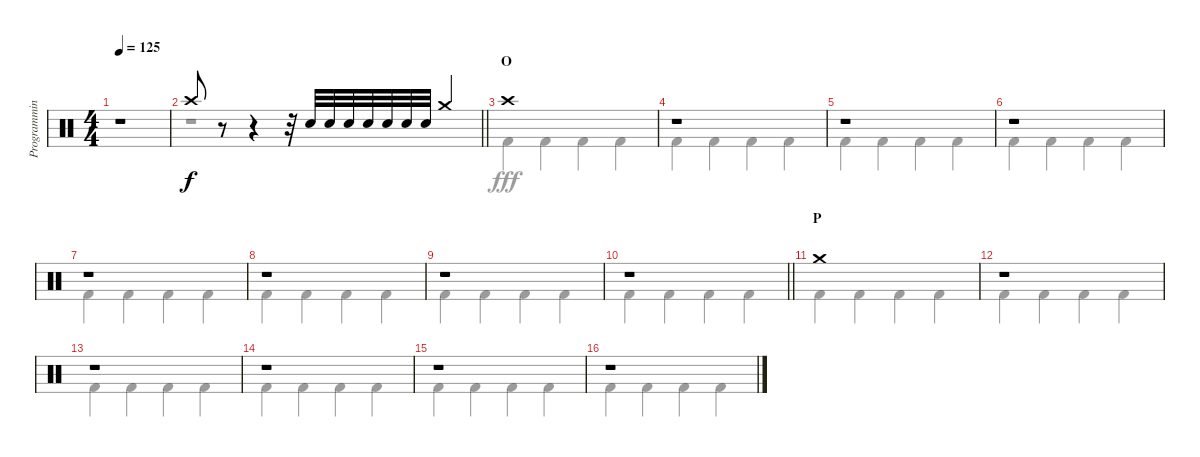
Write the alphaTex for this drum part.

\track ("Programming" "Programmin") {instrument percussion}
\staff {score}
\articulation defaults
\voice
\ts (4 4)
\tempo 125
\clef neutral
\ks c
r.1{dy f} |
\barLineRight lightlight "Crash high (hit)".8
r.8 r.4 r.32 "Electric Snare (hit)".32 "Electric Snare (hit)".32 "Electric Snare (hit)".32 "Electric Snare (hit)".32 "Electric Snare (hit)".32 "Electric Snare (hit)".32 "Electric Snare (hit)".32 "Crash medium (hit)".4 |
\section ("" "O")
"Crash high (hit)".1 |
r.1 |
r.1 |
r.1 |
r.1 |
r.1 |
r.1 |
\barLineRight lightlight
r.1 |
\section ("" "P")
"Crash medium (hit)".1 |
r.1 |
r.1 |
r.1 |
r.1 |
r.1
\voice
\clef neutral
\ottava regular
\simile none
\ks c
r.1{dy fff} |
\barLineRight lightlight
r.1 |
"Kick (hit) 2".4 "Kick (hit) 2".4 "Kick (hit) 2".4 "Kick (hit) 2".4 |
"Kick (hit) 2".4 "Kick (hit) 2".4 "Kick (hit) 2".4 "Kick (hit) 2".4 |
"Kick (hit) 2".4 "Kick (hit) 2".4 "Kick (hit) 2".4 "Kick (hit) 2".4 |
"Kick (hit) 2".4 "Kick (hit) 2".4 "Kick (hit) 2".4 "Kick (hit) 2".4 |
"Kick (hit) 2".4 "Kick (hit) 2".4 "Kick (hit) 2".4 "Kick (hit) 2".4 |
"Kick (hit) 2".4 "Kick (hit) 2".4 "Kick (hit) 2".4 "Kick (hit) 2".4 |
"Kick (hit) 2".4 "Kick (hit) 2".4 "Kick (hit) 2".4 "Kick (hit) 2".4 |
\barLineRight lightlight "Kick (hit) 2".4 "Kick (hit) 2".4 "Kick (hit) 2".4 "Kick (hit) 2".4
|
"Kick (hit) 2".4 "Kick (hit) 2".4 "Kick (hit) 2".4 "Kick (hit) 2".4 |
"Kick (hit) 2".4 "Kick (hit) 2".4 "Kick (hit) 2".4 "Kick (hit) 2".4 |
"Kick (hit) 2".4 "Kick (hit) 2".4 "Kick (hit) 2".4 "Kick (hit) 2".4 |
"Kick (hit) 2".4 "Kick (hit) 2".4 "Kick (hit) 2".4 "Kick (hit) 2".4 |
"Kick (hit) 2".4 "Kick (hit) 2".4 "Kick (hit) 2".4 "Kick (hit) 2".4 |
"Kick (hit) 2".4 "Kick (hit) 2".4 "Kick (hit) 2".4 "Kick (hit) 2".4
